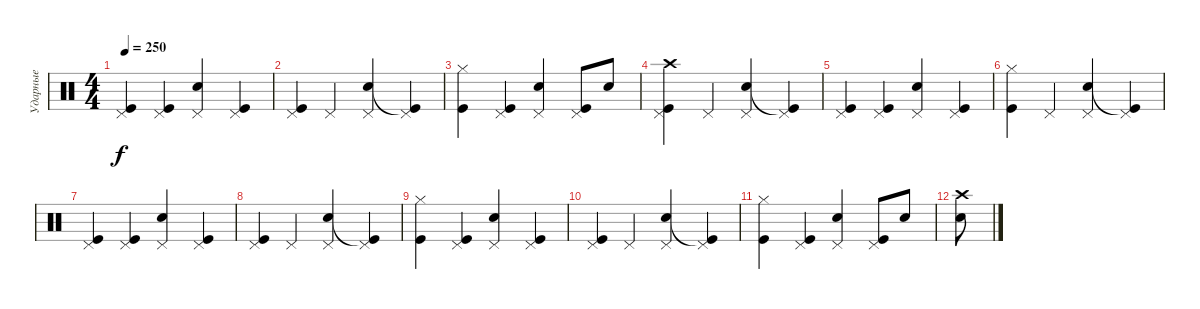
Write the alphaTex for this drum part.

\track ("Ударные" "Ударные") {instrument percussion}
\staff {score}
\articulation defaults
\ts (4 4)
\tempo 250
\clef neutral
\ks c
("Kick (hit)" "Pedal Hi-Hat (hit)").4{dy f} ("Kick (hit)" "Pedal Hi-Hat (hit)").4 ("Electric Snare (hit)" "Pedal Hi-Hat (hit)").4 ("Kick (hit)" "Pedal Hi-Hat (hit)").4 |
("Kick (hit)" "Pedal Hi-Hat (hit)").4 "Pedal Hi-Hat (hit)".4 ("Electric Snare (hit)" "Pedal Hi-Hat (hit)").4 ("Kick (hit)"{t} "Pedal Hi-Hat (hit)").4 |
("Kick (hit)" "Hi-Hat (closed)").4 ("Kick (hit)" "Pedal Hi-Hat (hit)").4 ("Electric Snare (hit)" "Pedal Hi-Hat (hit)").4 ("Kick (hit)" "Pedal Hi-Hat (hit)").8 "Electric Snare (hit)".8 |
("Kick (hit)" "Pedal Hi-Hat (hit)" "Crash high (hit)").4 "Pedal Hi-Hat (hit)".4 ("Electric Snare (hit)" "Pedal Hi-Hat (hit)").4 ("Kick (hit)"{t} "Pedal Hi-Hat (hit)").4 |
("Kick (hit)" "Pedal Hi-Hat (hit)").4 ("Kick (hit)" "Pedal Hi-Hat (hit)").4 ("Electric Snare (hit)" "Pedal Hi-Hat (hit)").4 ("Kick (hit)" "Pedal Hi-Hat (hit)").4 |
("Kick (hit)" "Hi-Hat (closed)").4 "Pedal Hi-Hat (hit)".4 ("Electric Snare (hit)" "Pedal Hi-Hat (hit)").4 ("Kick (hit)"{t} "Pedal Hi-Hat (hit)").4 |
("Kick (hit)" "Pedal Hi-Hat (hit)").4 ("Kick (hit)" "Pedal Hi-Hat (hit)").4 ("Electric Snare (hit)" "Pedal Hi-Hat (hit)").4 ("Kick (hit)" "Pedal Hi-Hat (hit)").4 |
("Kick (hit)" "Pedal Hi-Hat (hit)").4 "Pedal Hi-Hat (hit)".4 ("Electric Snare (hit)" "Pedal Hi-Hat (hit)").4 ("Kick (hit)"{t} "Pedal Hi-Hat (hit)").4 |
("Kick (hit)" "Hi-Hat (closed)").4 ("Kick (hit)" "Pedal Hi-Hat (hit)").4 ("Electric Snare (hit)" "Pedal Hi-Hat (hit)").4 ("Kick (hit)" "Pedal Hi-Hat (hit)").4 |
("Kick (hit)" "Pedal Hi-Hat (hit)").4 "Pedal Hi-Hat (hit)".4 ("Electric Snare (hit)" "Pedal Hi-Hat (hit)").4 ("Kick (hit)"{t} "Pedal Hi-Hat (hit)").4 |
("Kick (hit)" "Hi-Hat (closed)").4 ("Kick (hit)" "Pedal Hi-Hat (hit)").4 ("Electric Snare (hit)" "Pedal Hi-Hat (hit)").4 ("Kick (hit)" "Pedal Hi-Hat (hit)").8 "Electric Snare (hit)".8 |
("Electric Snare (hit)" "Crash high (hit)").8
